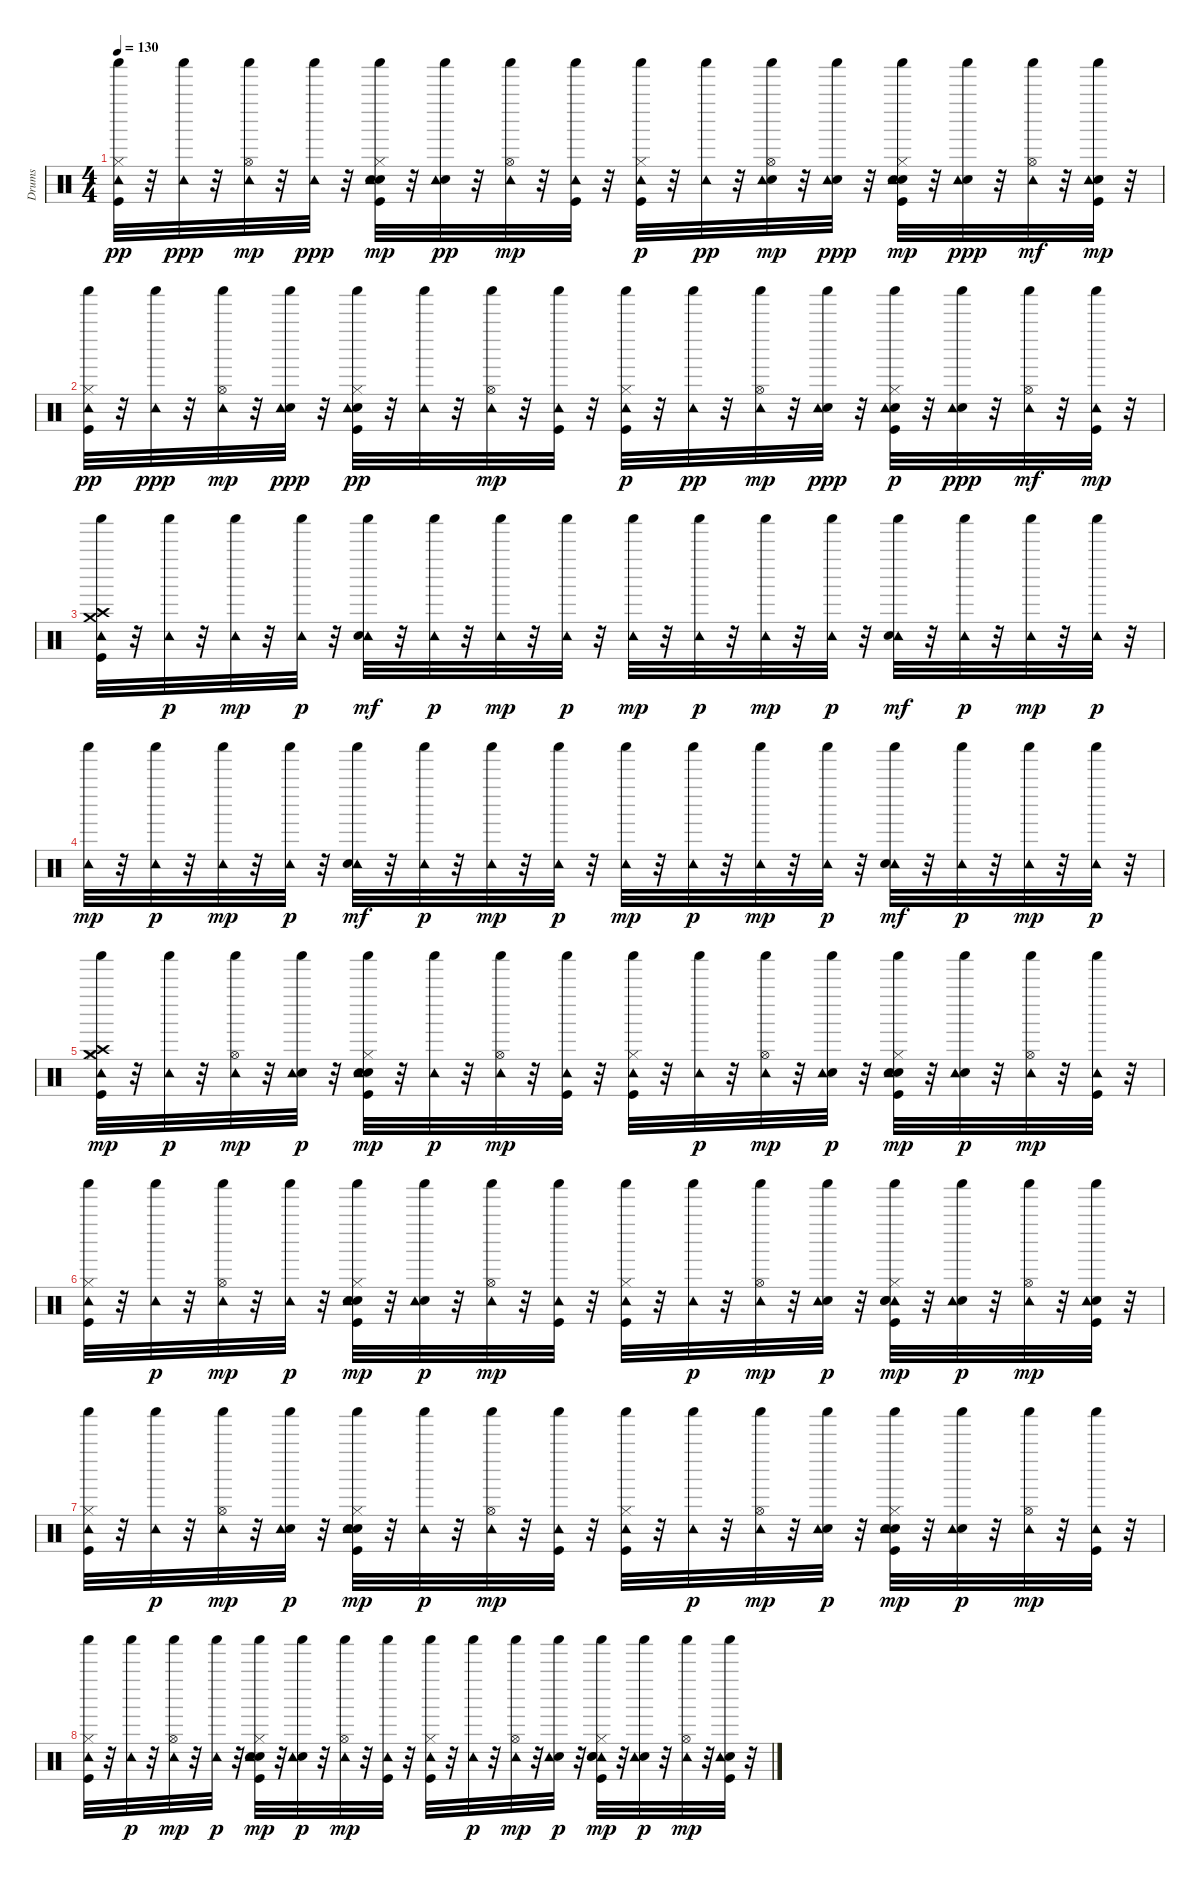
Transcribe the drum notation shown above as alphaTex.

\track ("Drums" "Drums") {instrument percussion}
\staff {score}
\articulation defaults
\ts (4 4)
\tempo 130
\clef neutral
\ks c
("Kick (hit)" "Shaker (hit)" "Hi-Hat (closed)" "Tambourine (hit)").32{dy pp} r.32 ("Shaker (hit)" "Tambourine (hit)").32{dy ppp} r.32 ("Shaker (hit)" "Hi-Hat (open)" "Tambourine (hit)").32{dy mp} r.32 ("Shaker (hit)" "Tambourine (hit)").32{dy ppp} r.32 ("Kick (hit)" "Shaker (hit)" "Hi-Hat (closed)" "Hand Clap (hit)" "Tambourine (hit)" "Snare (hit) 2").32{dy mp} r.32 ("Shaker (hit)" "Electric Snare (hit)" "Tambourine (hit)").32{dy pp} r.32 ("Shaker (hit)" "Hi-Hat (open)" "Tambourine (hit)").32{dy mp} r.32 ("Shaker (hit)" "Tambourine (hit)" "Kick (hit)").32 r.32 ("Kick (hit)" "Shaker (hit)" "Hi-Hat (closed)" "Tambourine (hit)").32{dy p} r.32 ("Shaker (hit)" "Tambourine (hit)").32{dy pp} r.32 ("Shaker (hit)" "Hand Clap (hit)" "Hi-Hat (open)" "Tambourine (hit)").32{dy mp} r.32 ("Shaker (hit)" "Electric Snare (hit)" "Tambourine (hit)").32{dy ppp} r.32 ("Kick (hit)" "Shaker (hit)" "Hi-Hat (closed)" "Hand Clap (hit)" "Tambourine (hit)" "Snare (hit) 2").32{dy mp} r.32 ("Shaker (hit)" "Electric Snare (hit)" "Tambourine (hit)").32{dy ppp} r.32 ("Shaker (hit)" "Hi-Hat (open)" "Tambourine (hit)").32{dy mf} r.32 ("Shaker (hit)" "Electric Snare (hit)" "Tambourine (hit)" "Kick (hit)").32{dy mp} r.32 |
("Kick (hit)" "Shaker (hit)" "Hi-Hat (closed)" "Tambourine (hit)").32{dy pp} r.32 ("Shaker (hit)" "Tambourine (hit)").32{dy ppp} r.32 ("Shaker (hit)" "Hi-Hat (open)" "Tambourine (hit)").32{dy mp} r.32 ("Shaker (hit)" "Electric Snare (hit)" "Tambourine (hit)").32{dy ppp} r.32 ("Kick (hit)" "Shaker (hit)" "Hi-Hat (closed)" "Hand Clap (hit)" "Tambourine (hit)").32{dy pp} r.32 ("Shaker (hit)" "Tambourine (hit)").32 r.32 ("Shaker (hit)" "Hi-Hat (open)" "Tambourine (hit)").32{dy mp} r.32 ("Shaker (hit)" "Tambourine (hit)" "Kick (hit)").32 r.32 ("Kick (hit)" "Shaker (hit)" "Hi-Hat (closed)" "Tambourine (hit)").32{dy p} r.32 ("Shaker (hit)" "Tambourine (hit)").32{dy pp} r.32 ("Shaker (hit)" "Hi-Hat (open)" "Tambourine (hit)").32{dy mp} r.32 ("Shaker (hit)" "Electric Snare (hit)" "Tambourine (hit)").32{dy ppp} r.32 ("Kick (hit)" "Shaker (hit)" "Hi-Hat (closed)" "Hand Clap (hit)" "Tambourine (hit)").32{dy p} r.32 ("Shaker (hit)" "Electric Snare (hit)" "Tambourine (hit)").32{dy ppp} r.32 ("Shaker (hit)" "Hi-Hat (open)" "Tambourine (hit)").32{dy mf} r.32 ("Shaker (hit)" "Tambourine (hit)" "Kick (hit)").32{dy mp} r.32 |
("Kick (hit)" "Crash high (hit)" "Crash medium (hit)" "Tambourine (hit)" "Shaker (hit)").32 r.32 ("Tambourine (hit)" "Shaker (hit)").32{dy p} r.32 ("Tambourine (hit)" "Shaker (hit)").32{dy mp} r.32 ("Tambourine (hit)" "Shaker (hit)").32{dy p} r.32 ("Tambourine (hit)" "Shaker (hit)" "Hand Clap (hit)").32{dy mf} r.32 ("Tambourine (hit)" "Shaker (hit)").32{dy p} r.32 ("Tambourine (hit)" "Shaker (hit)").32{dy mp} r.32 ("Tambourine (hit)" "Shaker (hit)").32{dy p} r.32 ("Tambourine (hit)" "Shaker (hit)").32{dy mp} r.32 ("Tambourine (hit)" "Shaker (hit)").32{dy p} r.32 ("Tambourine (hit)" "Shaker (hit)").32{dy mp} r.32 ("Tambourine (hit)" "Shaker (hit)").32{dy p} r.32 ("Tambourine (hit)" "Shaker (hit)" "Hand Clap (hit)").32{dy mf} r.32 ("Tambourine (hit)" "Shaker (hit)").32{dy p} r.32 ("Tambourine (hit)" "Shaker (hit)").32{dy mp} r.32 ("Tambourine (hit)" "Shaker (hit)").32{dy p} r.32 |
("Tambourine (hit)" "Shaker (hit)").32{dy mp} r.32 ("Tambourine (hit)" "Shaker (hit)").32{dy p} r.32 ("Tambourine (hit)" "Shaker (hit)").32{dy mp} r.32 ("Tambourine (hit)" "Shaker (hit)").32{dy p} r.32 ("Tambourine (hit)" "Shaker (hit)" "Hand Clap (hit)").32{dy mf} r.32 ("Tambourine (hit)" "Shaker (hit)").32{dy p} r.32 ("Tambourine (hit)" "Shaker (hit)").32{dy mp} r.32 ("Tambourine (hit)" "Shaker (hit)").32{dy p} r.32 ("Tambourine (hit)" "Shaker (hit)").32{dy mp} r.32 ("Tambourine (hit)" "Shaker (hit)").32{dy p} r.32 ("Tambourine (hit)" "Shaker (hit)").32{dy mp} r.32 ("Tambourine (hit)" "Shaker (hit)").32{dy p} r.32 ("Tambourine (hit)" "Shaker (hit)" "Hand Clap (hit)").32{dy mf} r.32 ("Tambourine (hit)" "Shaker (hit)").32{dy p} r.32 ("Tambourine (hit)" "Shaker (hit)").32{dy mp} r.32 ("Tambourine (hit)" "Shaker (hit)").32{dy p} r.32 |
("Kick (hit)" "Hi-Hat (closed)" "Crash high (hit)" "Crash medium (hit)" "Tambourine (hit)" "Shaker (hit)").32{dy mp} r.32 ("Tambourine (hit)" "Shaker (hit)").32{dy p} r.32 ("Tambourine (hit)" "Hi-Hat (open)" "Shaker (hit)").32{dy mp} r.32 ("Electric Snare (hit)" "Tambourine (hit)" "Shaker (hit)").32{dy p} r.32 ("Kick (hit)" "Hi-Hat (closed)" "Hand Clap (hit)" "Tambourine (hit)" "Shaker (hit)" "Snare (hit) 2").32{dy mp} r.32 ("Tambourine (hit)" "Shaker (hit)").32{dy p} r.32 ("Tambourine (hit)" "Hi-Hat (open)" "Shaker (hit)").32{dy mp} r.32 ("Tambourine (hit)" "Shaker (hit)" "Kick (hit)").32 r.32 ("Hi-Hat (closed)" "Tambourine (hit)" "Shaker (hit)" "Kick (hit)").32 r.32 ("Tambourine (hit)" "Shaker (hit)").32{dy p} r.32 ("Tambourine (hit)" "Hi-Hat (open)" "Shaker (hit)").32{dy mp} r.32 ("Electric Snare (hit)" "Tambourine (hit)" "Shaker (hit)").32{dy p} r.32 ("Kick (hit)" "Hi-Hat (closed)" "Hand Clap (hit)" "Tambourine (hit)" "Shaker (hit)" "Snare (hit) 2").32{dy mp} r.32 ("Electric Snare (hit)" "Tambourine (hit)" "Shaker (hit)").32{dy p} r.32 ("Tambourine (hit)" "Hi-Hat (open)" "Shaker (hit)").32{dy mp} r.32 ("Tambourine (hit)" "Shaker (hit)" "Kick (hit)").32 r.32 |
("Kick (hit)" "Hi-Hat (closed)" "Tambourine (hit)" "Shaker (hit)").32 r.32 ("Tambourine (hit)" "Shaker (hit)").32{dy p} r.32 ("Tambourine (hit)" "Hi-Hat (open)" "Shaker (hit)").32{dy mp} r.32 ("Tambourine (hit)" "Shaker (hit)").32{dy p} r.32 ("Kick (hit)" "Hi-Hat (closed)" "Hand Clap (hit)" "Tambourine (hit)" "Shaker (hit)" "Snare (hit) 2").32{dy mp} r.32 ("Electric Snare (hit)" "Tambourine (hit)" "Shaker (hit)").32{dy p} r.32 ("Tambourine (hit)" "Hi-Hat (open)" "Shaker (hit)").32{dy mp} r.32 ("Tambourine (hit)" "Shaker (hit)" "Kick (hit)").32 r.32 ("Kick (hit)" "Hi-Hat (closed)" "Tambourine (hit)" "Shaker (hit)").32 r.32 ("Tambourine (hit)" "Shaker (hit)").32{dy p} r.32 ("Tambourine (hit)" "Hi-Hat (open)" "Shaker (hit)").32{dy mp} r.32 ("Electric Snare (hit)" "Tambourine (hit)" "Shaker (hit)").32{dy p} r.32 ("Kick (hit)" "Hi-Hat (closed)" "Tambourine (hit)" "Shaker (hit)" "Hand Clap (hit)" "Snare (hit) 2").32{dy mp} r.32 ("Electric Snare (hit)" "Tambourine (hit)" "Shaker (hit)").32{dy p} r.32 ("Tambourine (hit)" "Hi-Hat (open)" "Shaker (hit)").32{dy mp} r.32 ("Electric Snare (hit)" "Tambourine (hit)" "Shaker (hit)" "Kick (hit)").32 r.32 |
("Kick (hit)" "Hi-Hat (closed)" "Tambourine (hit)" "Shaker (hit)").32 r.32 ("Tambourine (hit)" "Shaker (hit)").32{dy p} r.32 ("Tambourine (hit)" "Hi-Hat (open)" "Shaker (hit)").32{dy mp} r.32 ("Electric Snare (hit)" "Tambourine (hit)" "Shaker (hit)").32{dy p} r.32 ("Kick (hit)" "Hi-Hat (closed)" "Hand Clap (hit)" "Tambourine (hit)" "Shaker (hit)" "Snare (hit) 2").32{dy mp} r.32 ("Tambourine (hit)" "Shaker (hit)").32{dy p} r.32 ("Tambourine (hit)" "Hi-Hat (open)" "Shaker (hit)").32{dy mp} r.32 ("Tambourine (hit)" "Shaker (hit)" "Kick (hit)").32 r.32 ("Kick (hit)" "Hi-Hat (closed)" "Tambourine (hit)" "Shaker (hit)").32 r.32 ("Tambourine (hit)" "Shaker (hit)").32{dy p} r.32 ("Tambourine (hit)" "Hi-Hat (open)" "Shaker (hit)").32{dy mp} r.32 ("Electric Snare (hit)" "Tambourine (hit)" "Shaker (hit)").32{dy p} r.32 ("Kick (hit)" "Hi-Hat (closed)" "Hand Clap (hit)" "Tambourine (hit)" "Shaker (hit)" "Snare (hit) 2").32{dy mp} r.32 ("Electric Snare (hit)" "Tambourine (hit)" "Shaker (hit)").32{dy p} r.32 ("Tambourine (hit)" "Hi-Hat (open)" "Shaker (hit)").32{dy mp} r.32 ("Tambourine (hit)" "Shaker (hit)" "Kick (hit)").32 r.32 |
("Kick (hit)" "Hi-Hat (closed)" "Tambourine (hit)" "Shaker (hit)").32 r.32 ("Tambourine (hit)" "Shaker (hit)").32{dy p} r.32 ("Tambourine (hit)" "Hi-Hat (open)" "Shaker (hit)").32{dy mp} r.32 ("Tambourine (hit)" "Shaker (hit)").32{dy p} r.32 ("Kick (hit)" "Hi-Hat (closed)" "Hand Clap (hit)" "Tambourine (hit)" "Shaker (hit)" "Snare (hit) 2").32{dy mp} r.32 ("Electric Snare (hit)" "Tambourine (hit)" "Shaker (hit)").32{dy p} r.32 ("Tambourine (hit)" "Hi-Hat (open)" "Shaker (hit)").32{dy mp} r.32 ("Tambourine (hit)" "Shaker (hit)" "Kick (hit)").32 r.32 ("Kick (hit)" "Hi-Hat (closed)" "Tambourine (hit)" "Shaker (hit)").32 r.32 ("Tambourine (hit)" "Shaker (hit)").32{dy p} r.32 ("Tambourine (hit)" "Hi-Hat (open)" "Shaker (hit)").32{dy mp} r.32 ("Electric Snare (hit)" "Tambourine (hit)" "Shaker (hit)").32{dy p} r.32 ("Kick (hit)" "Hi-Hat (closed)" "Tambourine (hit)" "Shaker (hit)" "Hand Clap (hit)" "Snare (hit) 2").32{dy mp} r.32 ("Electric Snare (hit)" "Tambourine (hit)" "Shaker (hit)").32{dy p} r.32 ("Tambourine (hit)" "Hi-Hat (open)" "Shaker (hit)").32{dy mp} r.32 ("Electric Snare (hit)" "Tambourine (hit)" "Shaker (hit)" "Kick (hit)").32 r.32
